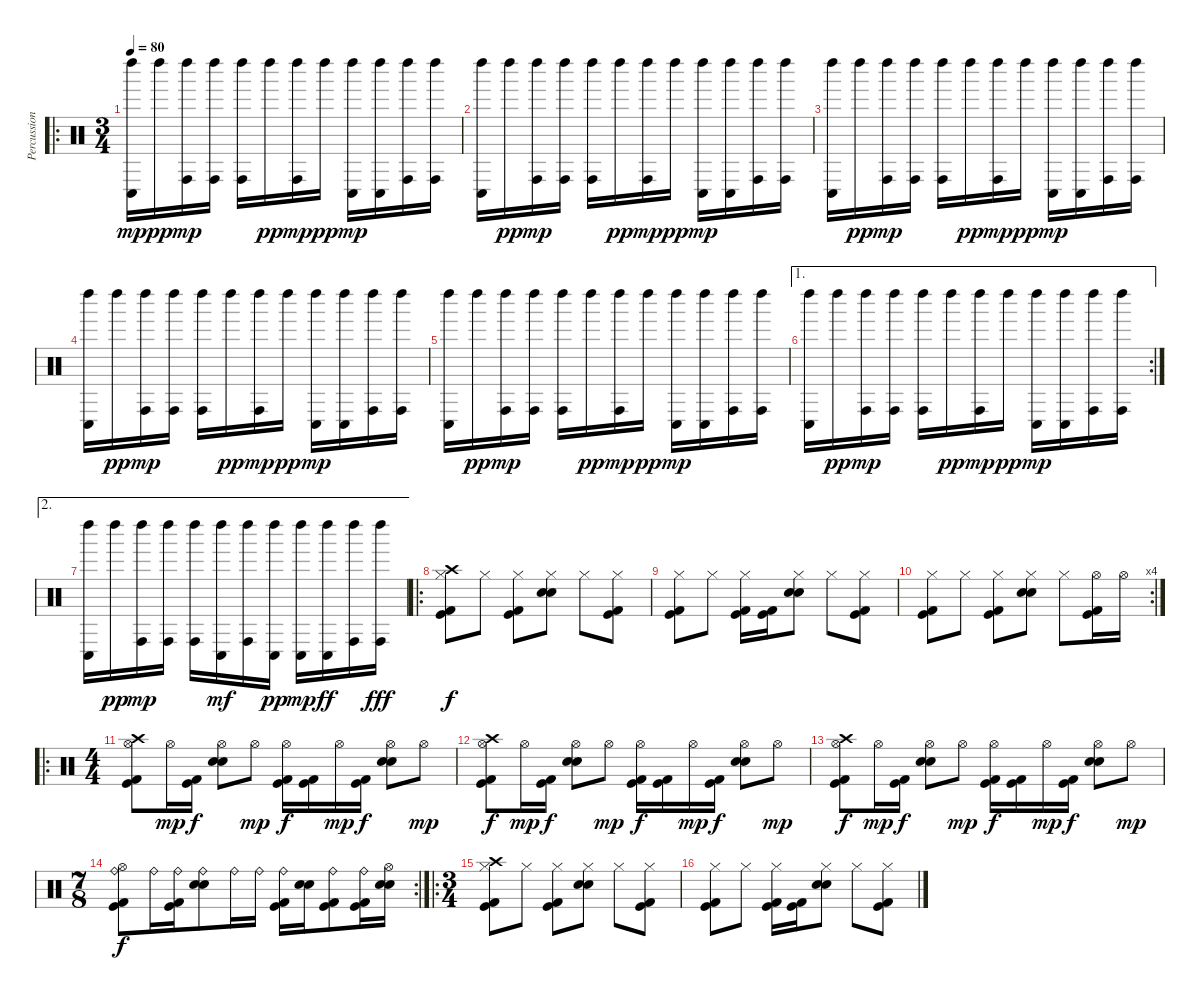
\track ("Percussion" "Percussion") {instrument percussion}
\staff {score}
\articulation defaults
\ro
\ts (3 4)
\tempo 80
\clef neutral
\ks c
("Left Maraca (hit)" "Conga low (hit)").16{dy mp} "Left Maraca (hit)".16{dy pp} ("Left Maraca (hit)" "Conga high (hit)").16{dy mp} ("Left Maraca (hit)" "Conga high (hit)").16 ("Left Maraca (hit)" "Conga high (hit)").16 "Left Maraca (hit)".16{dy pp} ("Left Maraca (hit)" "Conga high (hit)").16{dy mp} "Left Maraca (hit)".16{dy pp} ("Left Maraca (hit)" "Conga low (hit)").16{dy mp} ("Left Maraca (hit)" "Conga low (hit)").16 ("Left Maraca (hit)" "Conga high (hit)").16 ("Left Maraca (hit)" "Conga high (hit)").16 |
("Left Maraca (hit)" "Conga low (hit)").16 "Left Maraca (hit)".16{dy pp} ("Left Maraca (hit)" "Conga high (hit)").16{dy mp} ("Left Maraca (hit)" "Conga high (hit)").16 ("Left Maraca (hit)" "Conga high (hit)").16 "Left Maraca (hit)".16{dy pp} ("Left Maraca (hit)" "Conga high (hit)").16{dy mp} "Left Maraca (hit)".16{dy pp} ("Left Maraca (hit)" "Conga low (hit)").16{dy mp} ("Left Maraca (hit)" "Conga low (hit)").16 ("Left Maraca (hit)" "Conga high (hit)").16 ("Left Maraca (hit)" "Conga high (hit)").16 |
("Left Maraca (hit)" "Conga low (hit)").16 "Left Maraca (hit)".16{dy pp} ("Left Maraca (hit)" "Conga high (hit)").16{dy mp} ("Left Maraca (hit)" "Conga high (hit)").16 ("Left Maraca (hit)" "Conga high (hit)").16 "Left Maraca (hit)".16{dy pp} ("Left Maraca (hit)" "Conga high (hit)").16{dy mp} "Left Maraca (hit)".16{dy pp} ("Left Maraca (hit)" "Conga low (hit)").16{dy mp} ("Left Maraca (hit)" "Conga low (hit)").16 ("Left Maraca (hit)" "Conga high (hit)").16 ("Left Maraca (hit)" "Conga high (hit)").16 |
("Left Maraca (hit)" "Conga low (hit)").16 "Left Maraca (hit)".16{dy pp} ("Left Maraca (hit)" "Conga high (hit)").16{dy mp} ("Left Maraca (hit)" "Conga high (hit)").16 ("Left Maraca (hit)" "Conga high (hit)").16 "Left Maraca (hit)".16{dy pp} ("Left Maraca (hit)" "Conga high (hit)").16{dy mp} "Left Maraca (hit)".16{dy pp} ("Left Maraca (hit)" "Conga low (hit)").16{dy mp} ("Left Maraca (hit)" "Conga low (hit)").16 ("Left Maraca (hit)" "Conga high (hit)").16 ("Left Maraca (hit)" "Conga high (hit)").16 |
("Left Maraca (hit)" "Conga low (hit)").16 "Left Maraca (hit)".16{dy pp} ("Left Maraca (hit)" "Conga high (hit)").16{dy mp} ("Left Maraca (hit)" "Conga high (hit)").16 ("Left Maraca (hit)" "Conga high (hit)").16 "Left Maraca (hit)".16{dy pp} ("Left Maraca (hit)" "Conga high (hit)").16{dy mp} "Left Maraca (hit)".16{dy pp} ("Left Maraca (hit)" "Conga low (hit)").16{dy mp} ("Left Maraca (hit)" "Conga low (hit)").16 ("Left Maraca (hit)" "Conga high (hit)").16 ("Left Maraca (hit)" "Conga high (hit)").16 |
\ae 1
\rc 2
("Left Maraca (hit)" "Conga low (hit)").16 "Left Maraca (hit)".16{dy pp} ("Left Maraca (hit)" "Conga high (hit)").16{dy mp} ("Left Maraca (hit)" "Conga high (hit)").16 ("Left Maraca (hit)" "Conga high (hit)").16 "Left Maraca (hit)".16{dy pp} ("Left Maraca (hit)" "Conga high (hit)").16{dy mp} "Left Maraca (hit)".16{dy pp} ("Left Maraca (hit)" "Conga low (hit)").16{dy mp} ("Left Maraca (hit)" "Conga low (hit)").16 ("Left Maraca (hit)" "Conga high (hit)").16 ("Left Maraca (hit)" "Conga high (hit)").16 |
\ae 2
("Left Maraca (hit)" "Conga low (hit)").16 "Left Maraca (hit)".16{dy pp} ("Left Maraca (hit)" "Conga high (hit)").16{dy mp} ("Left Maraca (hit)" "Conga high (hit)").16 ("Left Maraca (hit)" "Conga high (hit)").16 ("Left Maraca (hit)" "Conga low (hit)").16{dy mf} ("Left Maraca (hit)" "Conga high (hit)").16 ("Left Maraca (hit)" "Conga low (hit)").16{dy pp} ("Left Maraca (hit)" "Conga low (hit)").16{dy mp} ("Left Maraca (hit)" "Conga low (hit)").16{dy ff} ("Left Maraca (hit)" "Conga high (hit)").16 ("Left Maraca (hit)" "Conga high (hit)").16{dy fff} |
\ro
("Hi-Hat (closed)" "Crash high (hit)" "Kick (hit) 2" "Kick (hit)").8{dy f} "Hi-Hat (closed)".8 ("Hi-Hat (closed)" "Kick (hit) 2" "Kick (hit)").8 ("Hi-Hat (closed)" "Electric Snare (hit)" "Snare (hit) 2").8 "Hi-Hat (closed)".8 ("Hi-Hat (closed)" "Kick (hit) 2" "Kick (hit)").8 |
("Hi-Hat (closed)" "Kick (hit) 2" "Kick (hit)").8 "Hi-Hat (closed)".8 ("Hi-Hat (closed)" "Kick (hit) 2" "Kick (hit)").16 ("Kick (hit) 2" "Kick (hit)").16 ("Hi-Hat (closed)" "Electric Snare (hit)" "Snare (hit) 2").8 "Hi-Hat (closed)".8 ("Hi-Hat (closed)" "Kick (hit) 2" "Kick (hit)").8 |
\rc 4
("Hi-Hat (closed)" "Kick (hit) 2" "Kick (hit)").8 "Hi-Hat (closed)".8 ("Hi-Hat (closed)" "Kick (hit) 2" "Kick (hit)").8 ("Hi-Hat (closed)" "Electric Snare (hit)" "Snare (hit) 2").8 "Hi-Hat (closed)".8 ("Hi-Hat (open)" "Kick (hit) 2" "Kick (hit)").16 "Hi-Hat (open)".16 |
\ro
\ts (4 4)
("Hi-Hat (open)" "Crash high (hit)" "Kick (hit) 2" "Kick (hit)").8 "Hi-Hat (open)".16{dy mp} ("Kick (hit) 2" "Kick (hit)").16{dy f} ("Hi-Hat (open)" "Electric Snare (hit)" "Snare (hit) 2").8 "Hi-Hat (open)".8{dy mp} ("Hi-Hat (open)" "Kick (hit) 2" "Kick (hit)").16{dy f} ("Kick (hit) 2" "Kick (hit)").16 "Hi-Hat (open)".16{dy mp} ("Kick (hit) 2" "Kick (hit)").16{dy f} ("Hi-Hat (open)" "Electric Snare (hit)" "Snare (hit) 2").8 "Hi-Hat (open)".8{dy mp} |
("Hi-Hat (open)" "Crash high (hit)" "Kick (hit) 2" "Kick (hit)").8{dy f} "Hi-Hat (open)".16{dy mp} ("Kick (hit) 2" "Kick (hit)").16{dy f} ("Hi-Hat (open)" "Electric Snare (hit)" "Snare (hit) 2").8 "Hi-Hat (open)".8{dy mp} ("Hi-Hat (open)" "Kick (hit) 2" "Kick (hit)").16{dy f} ("Kick (hit) 2" "Kick (hit)").16 "Hi-Hat (open)".16{dy mp} ("Kick (hit) 2" "Kick (hit)").16{dy f} ("Hi-Hat (open)" "Electric Snare (hit)" "Snare (hit) 2").8 "Hi-Hat (open)".8{dy mp} |
("Hi-Hat (open)" "Crash high (hit)" "Kick (hit) 2" "Kick (hit)").8{dy f} "Hi-Hat (open)".16{dy mp} ("Kick (hit) 2" "Kick (hit)").16{dy f} ("Hi-Hat (open)" "Electric Snare (hit)" "Snare (hit) 2").8 "Hi-Hat (open)".8{dy mp} ("Hi-Hat (open)" "Kick (hit) 2" "Kick (hit)").16{dy f} ("Kick (hit) 2" "Kick (hit)").16 "Hi-Hat (open)".16{dy mp} ("Kick (hit) 2" "Kick (hit)").16{dy f} ("Hi-Hat (open)" "Electric Snare (hit)" "Snare (hit) 2").8 "Hi-Hat (open)".8{dy mp} |
\rc 2
\ts (7 8)
("Ride (bell)" "Hi-Hat (open)" "Kick (hit) 2" "Kick (hit)").8{dy f} "Ride (bell)".16 ("Ride (bell)" "Kick (hit) 2" "Kick (hit)").16 ("Ride (bell)" "Electric Snare (hit)" "Snare (hit) 2").8 "Ride (bell)".16 "Ride (bell)".16 ("Ride (bell)" "Kick (hit) 2" "Kick (hit)").16 ("Electric Snare (hit)" "Snare (hit) 2").16 ("Ride (bell)" "Kick (hit) 2" "Kick (hit)").8 ("Ride (bell)" "Kick (hit) 2" "Kick (hit)").16 ("Hi-Hat (open)" "Electric Snare (hit)" "Snare (hit) 2").16 |
\ro
\ts (3 4)
("Hi-Hat (closed)" "Crash high (hit)" "Kick (hit) 2" "Kick (hit)").8 "Hi-Hat (closed)".8 ("Hi-Hat (closed)" "Kick (hit) 2" "Kick (hit)").8 ("Hi-Hat (closed)" "Electric Snare (hit)" "Snare (hit) 2").8 "Hi-Hat (closed)".8 ("Hi-Hat (closed)" "Kick (hit) 2" "Kick (hit)").8 |
("Hi-Hat (closed)" "Kick (hit) 2" "Kick (hit)").8 "Hi-Hat (closed)".8 ("Hi-Hat (closed)" "Kick (hit) 2" "Kick (hit)").16 ("Kick (hit) 2" "Kick (hit)").16 ("Hi-Hat (closed)" "Electric Snare (hit)" "Snare (hit) 2").8 "Hi-Hat (closed)".8 ("Hi-Hat (closed)" "Kick (hit) 2" "Kick (hit)").8
